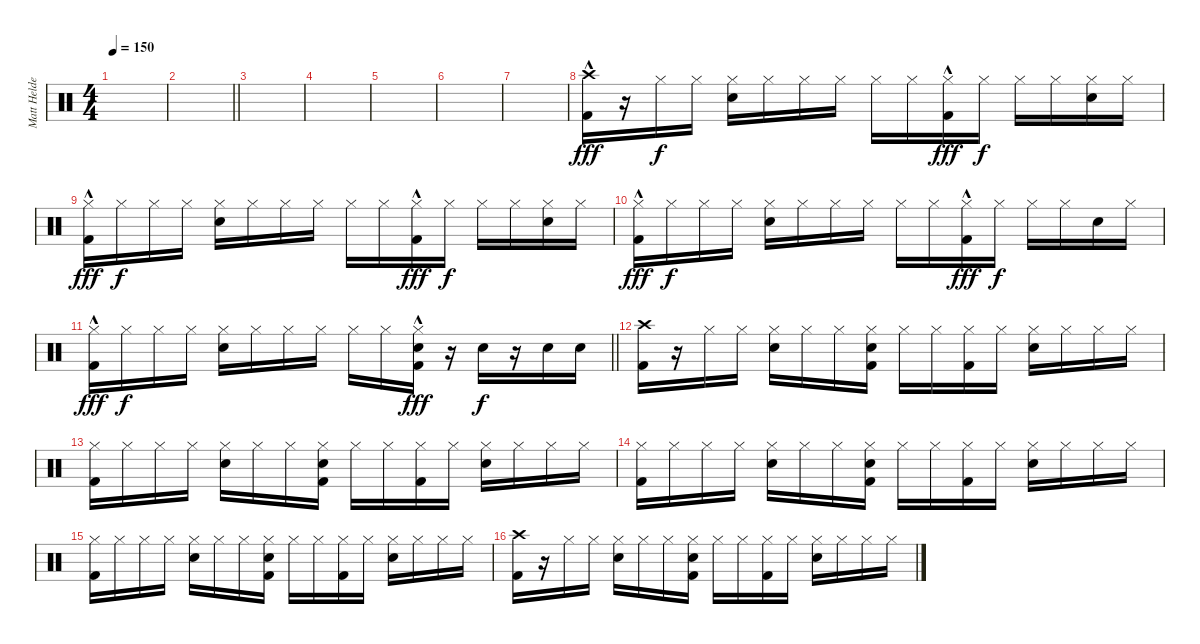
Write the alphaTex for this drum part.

\track ("Matt Helders" "Matt Helde") {instrument percussion}
\staff {score}
\articulation defaults
\ts (4 4)
\tempo 150
\clef neutral
\ks c
|
\barLineRight lightlight
|
\section ("" "")
|
|
|
|
|
("Crash high (hit)" "Kick (hit) 2"{hac}).16{dy fff} r.16 "Hi-Hat (closed)".16{dy f} "Hi-Hat (closed)".16 ("Hi-Hat (closed)" "Snare (hit) 2").16 "Hi-Hat (closed)".16 "Hi-Hat (closed)".16 "Hi-Hat (closed)".16 "Hi-Hat (closed)".16 "Hi-Hat (closed)".16 ("Hi-Hat (closed)" "Kick (hit) 2"{hac}).16{dy fff} "Hi-Hat (closed)".16{dy f} "Hi-Hat (closed)".16 "Hi-Hat (closed)".16 ("Hi-Hat (closed)" "Snare (hit) 2").16 "Hi-Hat (closed)".16 |
("Hi-Hat (closed)" "Kick (hit) 2"{hac}).16{dy fff} "Hi-Hat (closed)".16{dy f} "Hi-Hat (closed)".16 "Hi-Hat (closed)".16 ("Hi-Hat (closed)" "Snare (hit) 2").16 "Hi-Hat (closed)".16 "Hi-Hat (closed)".16 "Hi-Hat (closed)".16 "Hi-Hat (closed)".16 "Hi-Hat (closed)".16 ("Hi-Hat (closed)" "Kick (hit) 2"{hac}).16{dy fff} "Hi-Hat (closed)".16{dy f} "Hi-Hat (closed)".16 "Hi-Hat (closed)".16 ("Hi-Hat (closed)" "Snare (hit) 2").16 "Hi-Hat (closed)".16 |
("Hi-Hat (closed)" "Kick (hit) 2"{hac}).16{dy fff} "Hi-Hat (closed)".16{dy f} "Hi-Hat (closed)".16 "Hi-Hat (closed)".16 ("Hi-Hat (closed)" "Snare (hit) 2").16 "Hi-Hat (closed)".16 "Hi-Hat (closed)".16 "Hi-Hat (closed)".16 "Hi-Hat (closed)".16 "Hi-Hat (closed)".16 ("Hi-Hat (closed)" "Kick (hit) 2"{hac}).16{dy fff} "Hi-Hat (closed)".16{dy f} "Hi-Hat (closed)".16 "Hi-Hat (closed)".16 "Snare (hit) 2".16 "Hi-Hat (closed)".16 |
\barLineRight lightlight
("Hi-Hat (closed)" "Kick (hit) 2"{hac}).16{dy fff} "Hi-Hat (closed)".16{dy f} "Hi-Hat (closed)".16 "Hi-Hat (closed)".16 ("Hi-Hat (closed)" "Snare (hit) 2").16 "Hi-Hat (closed)".16 "Hi-Hat (closed)".16 "Hi-Hat (closed)".16 "Hi-Hat (closed)".16 "Hi-Hat (closed)".16 ("Hi-Hat (closed)" "Snare (hit) 2" "Kick (hit) 2"{hac}).16{dy fff} r.16 "Snare (hit) 2".16{dy f} r.16 "Snare (hit) 2".16 "Snare (hit) 2".16 |
\section ("" "")
("Crash high (hit)" "Kick (hit) 2").16 r.16 "Hi-Hat (closed)".16 "Hi-Hat (closed)".16 ("Hi-Hat (closed)" "Snare (hit) 2").16 "Hi-Hat (closed)".16 "Hi-Hat (closed)".16 ("Hi-Hat (closed)" "Snare (hit) 2" "Kick (hit) 2").16 "Hi-Hat (closed)".16 "Hi-Hat (closed)".16 ("Hi-Hat (closed)" "Kick (hit) 2").16 "Hi-Hat (closed)".16 ("Hi-Hat (closed)" "Snare (hit) 2").16 "Hi-Hat (closed)".16 "Hi-Hat (closed)".16 "Hi-Hat (closed)".16 |
("Hi-Hat (closed)" "Kick (hit) 2").16 "Hi-Hat (closed)".16 "Hi-Hat (closed)".16 "Hi-Hat (closed)".16 ("Hi-Hat (closed)" "Snare (hit) 2").16 "Hi-Hat (closed)".16 "Hi-Hat (closed)".16 ("Hi-Hat (closed)" "Snare (hit) 2" "Kick (hit) 2").16 "Hi-Hat (closed)".16 "Hi-Hat (closed)".16 ("Hi-Hat (closed)" "Kick (hit) 2").16 "Hi-Hat (closed)".16 ("Hi-Hat (closed)" "Snare (hit) 2").16 "Hi-Hat (closed)".16 "Hi-Hat (closed)".16 "Hi-Hat (closed)".16 |
("Hi-Hat (closed)" "Kick (hit) 2").16 "Hi-Hat (closed)".16 "Hi-Hat (closed)".16 "Hi-Hat (closed)".16 ("Hi-Hat (closed)" "Snare (hit) 2").16 "Hi-Hat (closed)".16 "Hi-Hat (closed)".16 ("Hi-Hat (closed)" "Snare (hit) 2" "Kick (hit) 2").16 "Hi-Hat (closed)".16 "Hi-Hat (closed)".16 ("Hi-Hat (closed)" "Kick (hit) 2").16 "Hi-Hat (closed)".16 ("Hi-Hat (closed)" "Snare (hit) 2").16 "Hi-Hat (closed)".16 "Hi-Hat (closed)".16 "Hi-Hat (closed)".16 |
("Hi-Hat (closed)" "Kick (hit) 2").16 "Hi-Hat (closed)".16 "Hi-Hat (closed)".16 "Hi-Hat (closed)".16 ("Hi-Hat (closed)" "Snare (hit) 2").16 "Hi-Hat (closed)".16 "Hi-Hat (closed)".16 ("Hi-Hat (closed)" "Snare (hit) 2" "Kick (hit) 2").16 "Hi-Hat (closed)".16 "Hi-Hat (closed)".16 ("Hi-Hat (closed)" "Kick (hit) 2").16 "Hi-Hat (closed)".16 ("Hi-Hat (closed)" "Snare (hit) 2").16 "Hi-Hat (closed)".16 "Hi-Hat (closed)".16 "Hi-Hat (closed)".16 |
("Crash high (hit)" "Kick (hit) 2").16 r.16 "Hi-Hat (closed)".16 "Hi-Hat (closed)".16 ("Hi-Hat (closed)" "Snare (hit) 2").16 "Hi-Hat (closed)".16 "Hi-Hat (closed)".16 ("Hi-Hat (closed)" "Snare (hit) 2" "Kick (hit) 2").16 "Hi-Hat (closed)".16 "Hi-Hat (closed)".16 ("Hi-Hat (closed)" "Kick (hit) 2").16 "Hi-Hat (closed)".16 ("Hi-Hat (closed)" "Snare (hit) 2").16 "Hi-Hat (closed)".16 "Hi-Hat (closed)".16 "Hi-Hat (closed)".16
